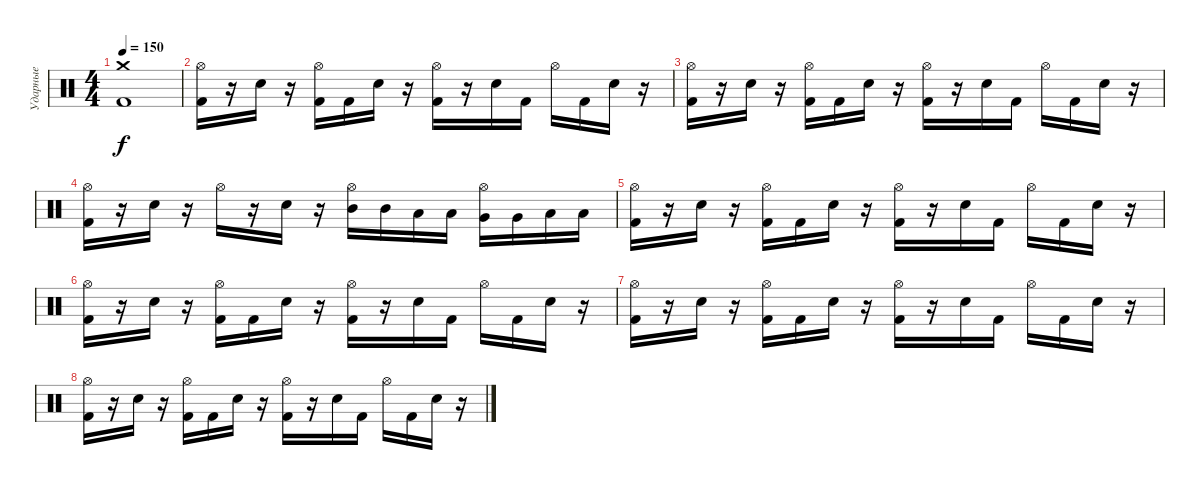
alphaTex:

\track ("Ударные" "Ударные") {instrument percussion}
\staff {score}
\articulation defaults
\ts (4 4)
\tempo 150
\clef neutral
\ks c
("Crash medium (hit)" "Kick (hit) 2").1{dy f} |
("Hi-Hat (open)" "Kick (hit) 2").16 r.16 "Electric Snare (hit)".16 r.16 ("Hi-Hat (open)" "Kick (hit) 2").16 "Kick (hit) 2".16 "Electric Snare (hit)".16 r.16 ("Hi-Hat (open)" "Kick (hit) 2").16 r.16 "Electric Snare (hit)".16 "Kick (hit) 2".16 "Hi-Hat (open)".16 "Kick (hit) 2".16 "Electric Snare (hit)".16 r.16 |
("Hi-Hat (open)" "Kick (hit) 2").16 r.16 "Electric Snare (hit)".16 r.16 ("Hi-Hat (open)" "Kick (hit) 2").16 "Kick (hit) 2".16 "Electric Snare (hit)".16 r.16 ("Hi-Hat (open)" "Kick (hit) 2").16 r.16 "Electric Snare (hit)".16 "Kick (hit) 2".16 "Hi-Hat (open)".16 "Kick (hit) 2".16 "Electric Snare (hit)".16 r.16 |
("Hi-Hat (open)" "Kick (hit) 2").16 r.16 "Electric Snare (hit)".16 r.16 "Hi-Hat (open)".16 r.16 "Electric Snare (hit)".16 r.16 ("Hi-Hat (open)" "Mid Tom (hit)").16 "Mid Tom (hit)".16 "Low Tom (hit)".16 "Low Tom (hit)".16 ("Hi-Hat (open)" "Very Low Tom (hit)").16 "Very Low Tom (hit)".16 "Low Floor Tom (hit)".16 "Low Floor Tom (hit)".16 |
("Hi-Hat (open)" "Kick (hit) 2").16 r.16 "Electric Snare (hit)".16 r.16 ("Hi-Hat (open)" "Kick (hit) 2").16 "Kick (hit) 2".16 "Electric Snare (hit)".16 r.16 ("Hi-Hat (open)" "Kick (hit) 2").16 r.16 "Electric Snare (hit)".16 "Kick (hit) 2".16 "Hi-Hat (open)".16 "Kick (hit) 2".16 "Electric Snare (hit)".16 r.16 |
("Hi-Hat (open)" "Kick (hit) 2").16 r.16 "Electric Snare (hit)".16 r.16 ("Hi-Hat (open)" "Kick (hit) 2").16 "Kick (hit) 2".16 "Electric Snare (hit)".16 r.16 ("Hi-Hat (open)" "Kick (hit) 2").16 r.16 "Electric Snare (hit)".16 "Kick (hit) 2".16 "Hi-Hat (open)".16 "Kick (hit) 2".16 "Electric Snare (hit)".16 r.16 |
("Hi-Hat (open)" "Kick (hit) 2").16 r.16 "Electric Snare (hit)".16 r.16 ("Hi-Hat (open)" "Kick (hit) 2").16 "Kick (hit) 2".16 "Electric Snare (hit)".16 r.16 ("Hi-Hat (open)" "Kick (hit) 2").16 r.16 "Electric Snare (hit)".16 "Kick (hit) 2".16 "Hi-Hat (open)".16 "Kick (hit) 2".16 "Electric Snare (hit)".16 r.16 |
("Hi-Hat (open)" "Kick (hit) 2").16 r.16 "Electric Snare (hit)".16 r.16 ("Hi-Hat (open)" "Kick (hit) 2").16 "Kick (hit) 2".16 "Electric Snare (hit)".16 r.16 ("Hi-Hat (open)" "Kick (hit) 2").16 r.16 "Electric Snare (hit)".16 "Kick (hit) 2".16 "Hi-Hat (open)".16 "Kick (hit) 2".16 "Electric Snare (hit)".16 r.16
